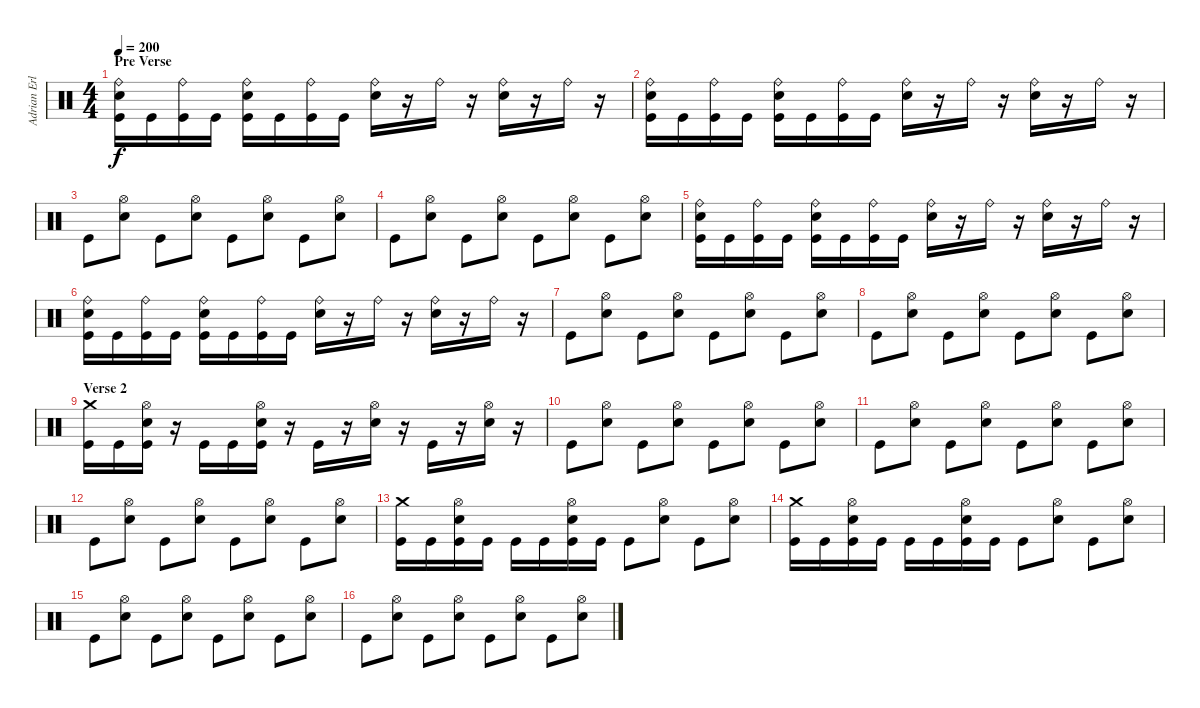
\track ("Adrian Erlandsson" "Adrian Erl") {instrument percussion}
\staff {score}
\articulation defaults
\ts (4 4)
\section ("" "Pre Verse")
\tempo 200
\clef neutral
\ks c
("Ride (bell)" "Electric Snare (hit)" "Kick (hit)").16{dy f} "Kick (hit)".16 ("Ride (bell)" "Kick (hit)").16 "Kick (hit)".16 ("Ride (bell)" "Electric Snare (hit)" "Kick (hit)").16 "Kick (hit)".16 ("Ride (bell)" "Kick (hit)").16 "Kick (hit)".16 ("Ride (bell)" "Electric Snare (hit)").16 r.16 "Ride (bell)".16 r.16 ("Ride (bell)" "Electric Snare (hit)").16 r.16 "Ride (bell)".16 r.16 |
("Ride (bell)" "Electric Snare (hit)" "Kick (hit)").16 "Kick (hit)".16 ("Ride (bell)" "Kick (hit)").16 "Kick (hit)".16 ("Ride (bell)" "Electric Snare (hit)" "Kick (hit)").16 "Kick (hit)".16 ("Ride (bell)" "Kick (hit)").16 "Kick (hit)".16 ("Ride (bell)" "Electric Snare (hit)").16 r.16 "Ride (bell)".16 r.16 ("Ride (bell)" "Electric Snare (hit)").16 r.16 "Ride (bell)".16 r.16 |
"Kick (hit)".8 ("Hi-Hat (open)" "Electric Snare (hit)").8 "Kick (hit)".8 ("Hi-Hat (open)" "Electric Snare (hit)").8 "Kick (hit)".8 ("Hi-Hat (open)" "Electric Snare (hit)").8 "Kick (hit)".8 ("Hi-Hat (open)" "Electric Snare (hit)").8 |
"Kick (hit)".8 ("Hi-Hat (open)" "Electric Snare (hit)").8 "Kick (hit)".8 ("Hi-Hat (open)" "Electric Snare (hit)").8 "Kick (hit)".8 ("Hi-Hat (open)" "Electric Snare (hit)").8 "Kick (hit)".8 ("Hi-Hat (open)" "Electric Snare (hit)").8 |
("Ride (bell)" "Electric Snare (hit)" "Kick (hit)").16 "Kick (hit)".16 ("Ride (bell)" "Kick (hit)").16 "Kick (hit)".16 ("Ride (bell)" "Electric Snare (hit)" "Kick (hit)").16 "Kick (hit)".16 ("Ride (bell)" "Kick (hit)").16 "Kick (hit)".16 ("Ride (bell)" "Electric Snare (hit)").16 r.16 "Ride (bell)".16 r.16 ("Ride (bell)" "Electric Snare (hit)").16 r.16 "Ride (bell)".16 r.16 |
("Ride (bell)" "Electric Snare (hit)" "Kick (hit)").16 "Kick (hit)".16 ("Ride (bell)" "Kick (hit)").16 "Kick (hit)".16 ("Ride (bell)" "Electric Snare (hit)" "Kick (hit)").16 "Kick (hit)".16 ("Ride (bell)" "Kick (hit)").16 "Kick (hit)".16 ("Ride (bell)" "Electric Snare (hit)").16 r.16 "Ride (bell)".16 r.16 ("Ride (bell)" "Electric Snare (hit)").16 r.16 "Ride (bell)".16 r.16 |
"Kick (hit)".8 ("Hi-Hat (open)" "Electric Snare (hit)").8 "Kick (hit)".8 ("Hi-Hat (open)" "Electric Snare (hit)").8 "Kick (hit)".8 ("Hi-Hat (open)" "Electric Snare (hit)").8 "Kick (hit)".8 ("Hi-Hat (open)" "Electric Snare (hit)").8 |
"Kick (hit)".8 ("Hi-Hat (open)" "Electric Snare (hit)").8 "Kick (hit)".8 ("Hi-Hat (open)" "Electric Snare (hit)").8 "Kick (hit)".8 ("Hi-Hat (open)" "Electric Snare (hit)").8 "Kick (hit)".8 ("Hi-Hat (open)" "Electric Snare (hit)").8 |
\section ("" "Verse 2")
("Crash medium (hit)" "Kick (hit)").16 "Kick (hit)".16 ("Hi-Hat (open)" "Electric Snare (hit)" "Kick (hit)").16 r.16 "Kick (hit)".16 "Kick (hit)".16 ("Hi-Hat (open)" "Electric Snare (hit)" "Kick (hit)").16 r.16 "Kick (hit)".16 r.16 ("Hi-Hat (open)" "Electric Snare (hit)").16 r.16 "Kick (hit)".16 r.16 ("Hi-Hat (open)" "Electric Snare (hit)").16 r.16 |
"Kick (hit)".8 ("Hi-Hat (open)" "Electric Snare (hit)").8 "Kick (hit)".8 ("Hi-Hat (open)" "Electric Snare (hit)").8 "Kick (hit)".8 ("Hi-Hat (open)" "Electric Snare (hit)").8 "Kick (hit)".8 ("Hi-Hat (open)" "Electric Snare (hit)").8 |
"Kick (hit)".8 ("Hi-Hat (open)" "Electric Snare (hit)").8 "Kick (hit)".8 ("Hi-Hat (open)" "Electric Snare (hit)").8 "Kick (hit)".8 ("Hi-Hat (open)" "Electric Snare (hit)").8 "Kick (hit)".8 ("Hi-Hat (open)" "Electric Snare (hit)").8 |
"Kick (hit)".8 ("Hi-Hat (open)" "Electric Snare (hit)").8 "Kick (hit)".8 ("Hi-Hat (open)" "Electric Snare (hit)").8 "Kick (hit)".8 ("Hi-Hat (open)" "Electric Snare (hit)").8 "Kick (hit)".8 ("Hi-Hat (open)" "Electric Snare (hit)").8 |
("Crash medium (hit)" "Kick (hit)").16 "Kick (hit)".16 ("Hi-Hat (open)" "Electric Snare (hit)" "Kick (hit)").16 "Kick (hit)".16 "Kick (hit)".16 "Kick (hit)".16 ("Hi-Hat (open)" "Electric Snare (hit)" "Kick (hit)").16 "Kick (hit)".16 "Kick (hit)".8 ("Hi-Hat (open)" "Electric Snare (hit)").8 "Kick (hit)".8 ("Hi-Hat (open)" "Electric Snare (hit)").8 |
("Crash medium (hit)" "Kick (hit)").16 "Kick (hit)".16 ("Hi-Hat (open)" "Electric Snare (hit)" "Kick (hit)").16 "Kick (hit)".16 "Kick (hit)".16 "Kick (hit)".16 ("Hi-Hat (open)" "Electric Snare (hit)" "Kick (hit)").16 "Kick (hit)".16 "Kick (hit)".8 ("Hi-Hat (open)" "Electric Snare (hit)").8 "Kick (hit)".8 ("Hi-Hat (open)" "Electric Snare (hit)").8 |
"Kick (hit)".8 ("Hi-Hat (open)" "Electric Snare (hit)").8 "Kick (hit)".8 ("Hi-Hat (open)" "Electric Snare (hit)").8 "Kick (hit)".8 ("Hi-Hat (open)" "Electric Snare (hit)").8 "Kick (hit)".8 ("Hi-Hat (open)" "Electric Snare (hit)").8 |
"Kick (hit)".8 ("Hi-Hat (open)" "Electric Snare (hit)").8 "Kick (hit)".8 ("Hi-Hat (open)" "Electric Snare (hit)").8 "Kick (hit)".8 ("Hi-Hat (open)" "Electric Snare (hit)").8 "Kick (hit)".8 ("Hi-Hat (open)" "Electric Snare (hit)").8
